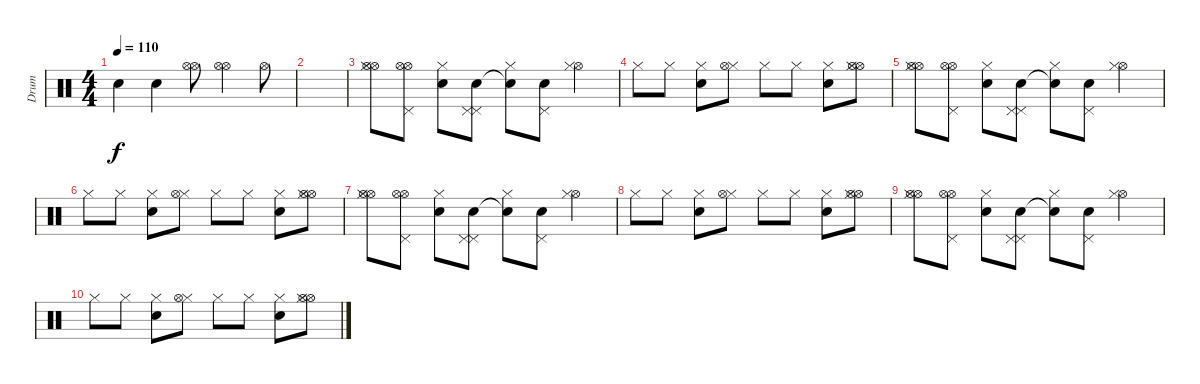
\track ("Drum" "Drum") {instrument percussion}
\staff {score}
\articulation defaults
\ts (4 4)
\tempo 110
\clef neutral
\ks c "Electric Snare (hit)".4{dy f} "Electric Snare (hit)".4
("Hi-Hat (open)" "Hi-Hat (open)").8 ("Hi-Hat (open)" "Hi-Hat (open)").4 "Hi-Hat (open)".8 |
|
("Hi-Hat (open)" "Hi-Hat (open)" "Hi-Hat (closed)").8 ("Hi-Hat (open)" "Hi-Hat (open)" "Pedal Hi-Hat (hit)").8 ("Electric Snare (hit)" "Hi-Hat (closed)").8 ("Electric Snare (hit)" "Pedal Hi-Hat (hit)" "Pedal Hi-Hat (hit)").8 ("Snare (hit)"{t} "Hi-Hat (closed)").8 ("Electric Snare (hit)" "Pedal Hi-Hat (hit)").8 ("Hi-Hat (open)" "Hi-Hat (closed)").4 |
"Hi-Hat (closed)".8 "Hi-Hat (closed)".8 ("Electric Snare (hit)" "Hi-Hat (closed)").8 ("Hi-Hat (closed)" "Hi-Hat (open)").8 "Hi-Hat (closed)".8 "Hi-Hat (closed)".8 ("Electric Snare (hit)" "Hi-Hat (closed)").8 ("Hi-Hat (open)" "Hi-Hat (closed)" "Hi-Hat (open)").8 |
("Hi-Hat (open)" "Hi-Hat (open)" "Hi-Hat (closed)").8 ("Hi-Hat (open)" "Hi-Hat (open)" "Pedal Hi-Hat (hit)").8 ("Electric Snare (hit)" "Hi-Hat (closed)").8 ("Electric Snare (hit)" "Pedal Hi-Hat (hit)" "Pedal Hi-Hat (hit)").8 ("Snare (hit)"{t} "Hi-Hat (closed)").8 ("Electric Snare (hit)" "Pedal Hi-Hat (hit)").8 ("Hi-Hat (open)" "Hi-Hat (closed)").4 |
"Hi-Hat (closed)".8 "Hi-Hat (closed)".8 ("Electric Snare (hit)" "Hi-Hat (closed)").8 ("Hi-Hat (closed)" "Hi-Hat (open)").8 "Hi-Hat (closed)".8 "Hi-Hat (closed)".8 ("Electric Snare (hit)" "Hi-Hat (closed)").8 ("Hi-Hat (open)" "Hi-Hat (closed)" "Hi-Hat (open)").8 |
("Hi-Hat (open)" "Hi-Hat (open)" "Hi-Hat (closed)").8 ("Hi-Hat (open)" "Hi-Hat (open)" "Pedal Hi-Hat (hit)").8 ("Electric Snare (hit)" "Hi-Hat (closed)").8 ("Electric Snare (hit)" "Pedal Hi-Hat (hit)" "Pedal Hi-Hat (hit)").8 ("Snare (hit)"{t} "Hi-Hat (closed)").8 ("Electric Snare (hit)" "Pedal Hi-Hat (hit)").8 ("Hi-Hat (open)" "Hi-Hat (closed)").4 |
"Hi-Hat (closed)".8 "Hi-Hat (closed)".8 ("Electric Snare (hit)" "Hi-Hat (closed)").8 ("Hi-Hat (closed)" "Hi-Hat (open)").8 "Hi-Hat (closed)".8 "Hi-Hat (closed)".8 ("Electric Snare (hit)" "Hi-Hat (closed)").8 ("Hi-Hat (open)" "Hi-Hat (closed)" "Hi-Hat (open)").8 |
("Hi-Hat (open)" "Hi-Hat (open)" "Hi-Hat (closed)").8 ("Hi-Hat (open)" "Hi-Hat (open)" "Pedal Hi-Hat (hit)").8 ("Electric Snare (hit)" "Hi-Hat (closed)").8 ("Electric Snare (hit)" "Pedal Hi-Hat (hit)" "Pedal Hi-Hat (hit)").8 ("Snare (hit)"{t} "Hi-Hat (closed)").8 ("Electric Snare (hit)" "Pedal Hi-Hat (hit)").8 ("Hi-Hat (open)" "Hi-Hat (closed)").4 |
"Hi-Hat (closed)".8 "Hi-Hat (closed)".8 ("Electric Snare (hit)" "Hi-Hat (closed)").8 ("Hi-Hat (closed)" "Hi-Hat (open)").8 "Hi-Hat (closed)".8 "Hi-Hat (closed)".8 ("Electric Snare (hit)" "Hi-Hat (closed)").8 ("Hi-Hat (open)" "Hi-Hat (closed)" "Hi-Hat (open)").8
